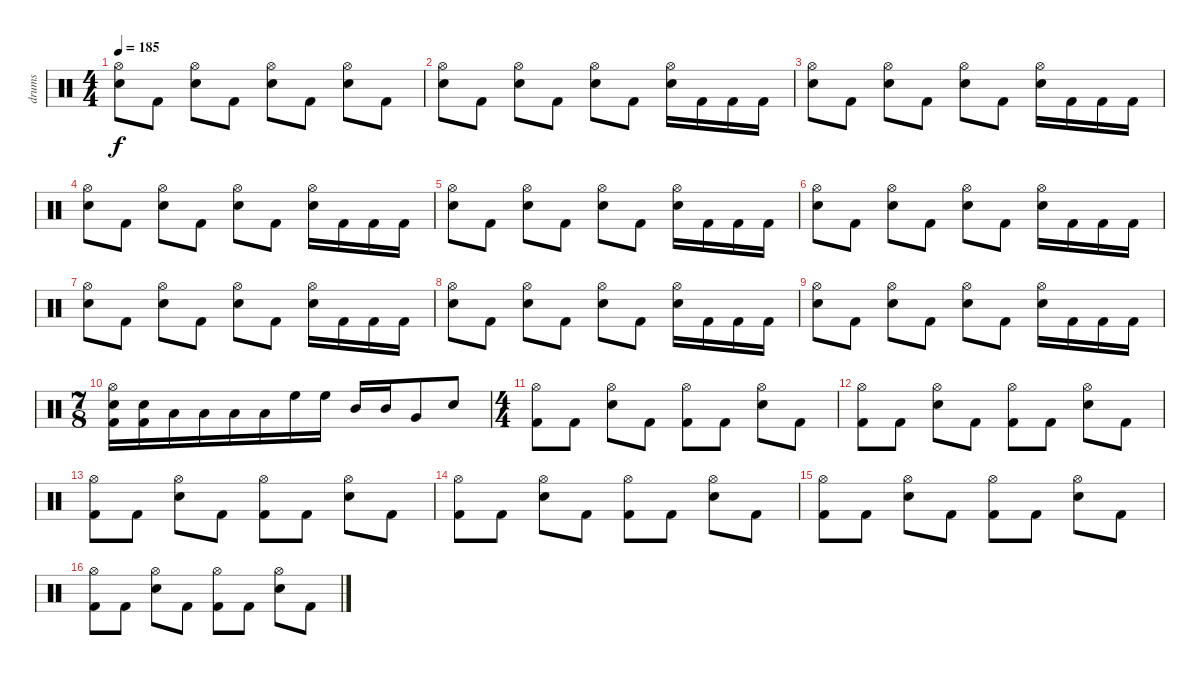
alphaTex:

\track ("drums" "drums") {instrument percussion}
\staff {score}
\articulation defaults
\ts (4 4)
\tempo 185
\clef neutral
\ks c
("Hi-Hat (open)" "Electric Snare (hit)").8{dy f} "Kick (hit) 2".8 ("Hi-Hat (open)" "Electric Snare (hit)").8 "Kick (hit) 2".8 ("Hi-Hat (open)" "Electric Snare (hit)").8 "Kick (hit) 2".8 ("Hi-Hat (open)" "Electric Snare (hit)").8 "Kick (hit) 2".8 |
("Hi-Hat (open)" "Electric Snare (hit)").8 "Kick (hit) 2".8 ("Hi-Hat (open)" "Electric Snare (hit)").8 "Kick (hit) 2".8 ("Hi-Hat (open)" "Electric Snare (hit)").8 "Kick (hit) 2".8 ("Hi-Hat (open)" "Electric Snare (hit)").16 "Kick (hit) 2".16 "Kick (hit) 2".16 "Kick (hit) 2".16 |
("Hi-Hat (open)" "Electric Snare (hit)").8 "Kick (hit) 2".8 ("Hi-Hat (open)" "Electric Snare (hit)").8 "Kick (hit) 2".8 ("Hi-Hat (open)" "Electric Snare (hit)").8 "Kick (hit) 2".8 ("Hi-Hat (open)" "Electric Snare (hit)").16 "Kick (hit) 2".16 "Kick (hit) 2".16 "Kick (hit) 2".16 |
("Hi-Hat (open)" "Electric Snare (hit)").8 "Kick (hit) 2".8 ("Hi-Hat (open)" "Electric Snare (hit)").8 "Kick (hit) 2".8 ("Hi-Hat (open)" "Electric Snare (hit)").8 "Kick (hit) 2".8 ("Hi-Hat (open)" "Electric Snare (hit)").16 "Kick (hit) 2".16 "Kick (hit) 2".16 "Kick (hit) 2".16 |
("Hi-Hat (open)" "Electric Snare (hit)").8 "Kick (hit) 2".8 ("Hi-Hat (open)" "Electric Snare (hit)").8 "Kick (hit) 2".8 ("Hi-Hat (open)" "Electric Snare (hit)").8 "Kick (hit) 2".8 ("Hi-Hat (open)" "Electric Snare (hit)").16 "Kick (hit) 2".16 "Kick (hit) 2".16 "Kick (hit) 2".16 |
("Hi-Hat (open)" "Electric Snare (hit)").8 "Kick (hit) 2".8 ("Hi-Hat (open)" "Electric Snare (hit)").8 "Kick (hit) 2".8 ("Hi-Hat (open)" "Electric Snare (hit)").8 "Kick (hit) 2".8 ("Hi-Hat (open)" "Electric Snare (hit)").16 "Kick (hit) 2".16 "Kick (hit) 2".16 "Kick (hit) 2".16 |
("Hi-Hat (open)" "Electric Snare (hit)").8 "Kick (hit) 2".8 ("Hi-Hat (open)" "Electric Snare (hit)").8 "Kick (hit) 2".8 ("Hi-Hat (open)" "Electric Snare (hit)").8 "Kick (hit) 2".8 ("Hi-Hat (open)" "Electric Snare (hit)").16 "Kick (hit) 2".16 "Kick (hit) 2".16 "Kick (hit) 2".16 |
("Hi-Hat (open)" "Electric Snare (hit)").8 "Kick (hit) 2".8 ("Hi-Hat (open)" "Electric Snare (hit)").8 "Kick (hit) 2".8 ("Hi-Hat (open)" "Electric Snare (hit)").8 "Kick (hit) 2".8 ("Hi-Hat (open)" "Electric Snare (hit)").16 "Kick (hit) 2".16 "Kick (hit) 2".16 "Kick (hit) 2".16 |
("Hi-Hat (open)" "Electric Snare (hit)").8 "Kick (hit) 2".8 ("Hi-Hat (open)" "Electric Snare (hit)").8 "Kick (hit) 2".8 ("Hi-Hat (open)" "Electric Snare (hit)").8 "Kick (hit) 2".8 ("Hi-Hat (open)" "Electric Snare (hit)").16 "Kick (hit) 2".16 "Kick (hit) 2".16 "Kick (hit) 2".16 |
\ts (7 8)
("Hi-Hat (open)" "Electric Snare (hit)" "Kick (hit) 2").16 ("Electric Snare (hit)" "Kick (hit) 2").16 "Low Tom (hit)".16 "Low Tom (hit)".16 "Low Floor Tom (hit)".16 "Low Floor Tom (hit)".16 "High Floor Tom (hit)".16 "High Floor Tom (hit)".16 "Mid Tom (hit)".16 "Mid Tom (hit)".16 "Very Low Tom (hit)".8 "Electric Snare (hit)".8 |
\ts (4 4)
("Hi-Hat (open)" "Kick (hit) 2").8 "Kick (hit) 2".8 ("Hi-Hat (open)" "Electric Snare (hit)").8 "Kick (hit) 2".8 ("Hi-Hat (open)" "Kick (hit) 2").8 "Kick (hit) 2".8 ("Hi-Hat (open)" "Electric Snare (hit)").8 "Kick (hit) 2".8 |
("Hi-Hat (open)" "Kick (hit) 2").8 "Kick (hit) 2".8 ("Hi-Hat (open)" "Electric Snare (hit)").8 "Kick (hit) 2".8 ("Hi-Hat (open)" "Kick (hit) 2").8 "Kick (hit) 2".8 ("Hi-Hat (open)" "Electric Snare (hit)").8 "Kick (hit) 2".8 |
("Hi-Hat (open)" "Kick (hit) 2").8 "Kick (hit) 2".8 ("Hi-Hat (open)" "Electric Snare (hit)").8 "Kick (hit) 2".8 ("Hi-Hat (open)" "Kick (hit) 2").8 "Kick (hit) 2".8 ("Hi-Hat (open)" "Electric Snare (hit)").8 "Kick (hit) 2".8 |
("Hi-Hat (open)" "Kick (hit) 2").8 "Kick (hit) 2".8 ("Hi-Hat (open)" "Electric Snare (hit)").8 "Kick (hit) 2".8 ("Hi-Hat (open)" "Kick (hit) 2").8 "Kick (hit) 2".8 ("Hi-Hat (open)" "Electric Snare (hit)").8 "Kick (hit) 2".8 |
("Hi-Hat (open)" "Kick (hit) 2").8 "Kick (hit) 2".8 ("Hi-Hat (open)" "Electric Snare (hit)").8 "Kick (hit) 2".8 ("Hi-Hat (open)" "Kick (hit) 2").8 "Kick (hit) 2".8 ("Hi-Hat (open)" "Electric Snare (hit)").8 "Kick (hit) 2".8 |
("Hi-Hat (open)" "Kick (hit) 2").8 "Kick (hit) 2".8 ("Hi-Hat (open)" "Electric Snare (hit)").8 "Kick (hit) 2".8 ("Hi-Hat (open)" "Kick (hit) 2").8 "Kick (hit) 2".8 ("Hi-Hat (open)" "Electric Snare (hit)").8 "Kick (hit) 2".8
